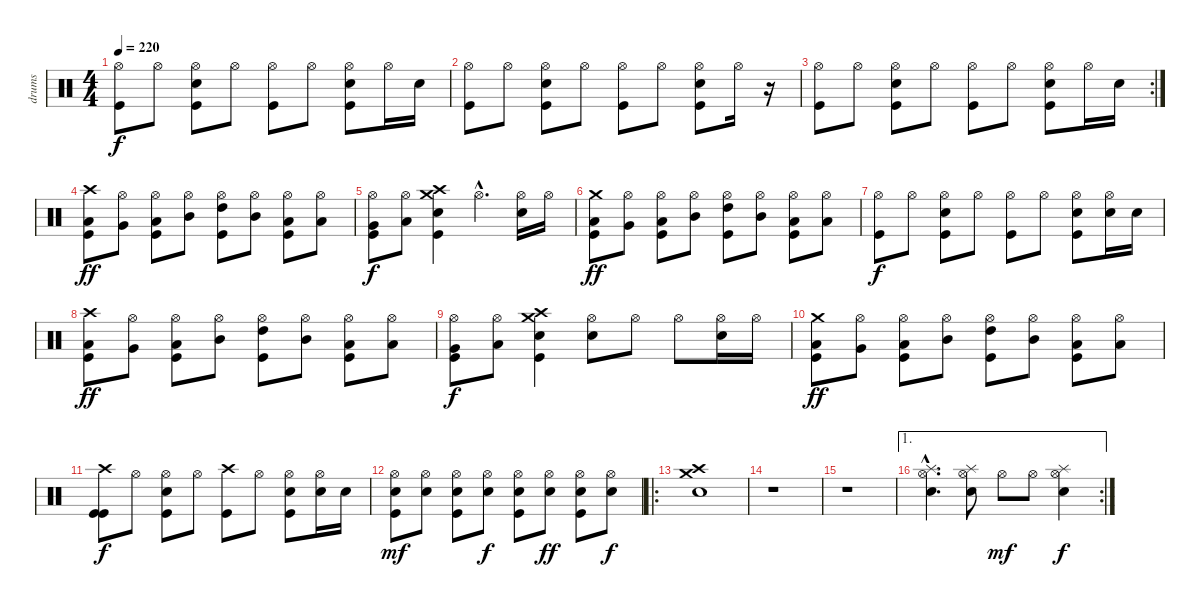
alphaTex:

\track ("drums" "drums") {instrument percussion}
\staff {score}
\articulation defaults
\ts (4 4)
\tempo 220
\clef neutral
\ks c
("Hi-Hat (open)" "Kick (hit)").8{dy f} "Hi-Hat (open)".8 ("Hi-Hat (open)" "Electric Snare (hit)" "Kick (hit)").8 "Hi-Hat (open)".8 ("Hi-Hat (open)" "Kick (hit)").8 "Hi-Hat (open)".8 ("Hi-Hat (open)" "Electric Snare (hit)" "Kick (hit)").8 "Hi-Hat (open)".16 "Electric Snare (hit)".16 |
("Hi-Hat (open)" "Kick (hit)").8 "Hi-Hat (open)".8 ("Hi-Hat (open)" "Electric Snare (hit)" "Kick (hit)").8 "Hi-Hat (open)".8 ("Hi-Hat (open)" "Kick (hit)").8 "Hi-Hat (open)".8 ("Hi-Hat (open)" "Electric Snare (hit)" "Kick (hit)").8 "Hi-Hat (open)".16 r.16 |
\rc 2
("Hi-Hat (open)" "Kick (hit)").8 "Hi-Hat (open)".8 ("Hi-Hat (open)" "Electric Snare (hit)" "Kick (hit)").8 "Hi-Hat (open)".8 ("Hi-Hat (open)" "Kick (hit)").8 "Hi-Hat (open)".8 ("Hi-Hat (open)" "Electric Snare (hit)" "Kick (hit)").8 "Hi-Hat (open)".16 "Electric Snare (hit)".16 |
("Crash high (hit)" "Low Floor Tom (hit)" "Kick (hit)").8{dy ff} ("Hi-Hat (open)" "Very Low Tom (hit)").8 ("Hi-Hat (open)" "Low Tom (hit)" "Kick (hit)").8 ("Hi-Hat (open)" "Mid Tom (hit)").8 ("Hi-Hat (open)" "High Tom (hit)" "Kick (hit)").8 ("Hi-Hat (open)" "Mid Tom (hit)").8 ("Hi-Hat (open)" "Low Tom (hit)" "Kick (hit)").8 ("Hi-Hat (open)" "Low Tom (hit)").8 |
("Hi-Hat (open)" "Very Low Tom (hit)" "Kick (hit)").8{dy f} ("Hi-Hat (open)" "Low Floor Tom (hit)").8 ("Crash medium (hit)" "Crash high (hit)" "Electric Snare (hit)" "Kick (hit)").4 "Hi-Hat (open)"{hac}.4{d} ("Electric Snare (hit)" "Hi-Hat (open)").16 "Hi-Hat (open)".16 |
("Crash medium (hit)" "Low Floor Tom (hit)" "Kick (hit)").8{dy ff} ("Hi-Hat (open)" "Very Low Tom (hit)").8 ("Hi-Hat (open)" "Low Tom (hit)" "Kick (hit)").8 ("Hi-Hat (open)" "Mid Tom (hit)").8 ("Hi-Hat (open)" "High Tom (hit)" "Kick (hit)").8 ("Hi-Hat (open)" "Mid Tom (hit)").8 ("Hi-Hat (open)" "Low Tom (hit)" "Kick (hit)").8 ("Hi-Hat (open)" "Low Tom (hit)").8 |
("Hi-Hat (open)" "Kick (hit)").8{dy f} "Hi-Hat (open)".8 ("Hi-Hat (open)" "Electric Snare (hit)" "Kick (hit)").8 "Hi-Hat (open)".8 ("Hi-Hat (open)" "Kick (hit)").8 "Hi-Hat (open)".8 ("Hi-Hat (open)" "Electric Snare (hit)" "Kick (hit)").8 ("Hi-Hat (open)" "Electric Snare (hit)").16 "Electric Snare (hit)".16 |
("Crash high (hit)" "Low Floor Tom (hit)" "Kick (hit)").8{dy ff} ("Hi-Hat (open)" "Very Low Tom (hit)").8 ("Hi-Hat (open)" "Low Tom (hit)" "Kick (hit)").8 ("Hi-Hat (open)" "Mid Tom (hit)").8 ("Hi-Hat (open)" "High Tom (hit)" "Kick (hit)").8 ("Hi-Hat (open)" "Mid Tom (hit)").8 ("Hi-Hat (open)" "Low Tom (hit)" "Kick (hit)").8 ("Hi-Hat (open)" "Low Tom (hit)").8 |
("Hi-Hat (open)" "Very Low Tom (hit)" "Kick (hit)").8{dy f} ("Hi-Hat (open)" "Low Floor Tom (hit)").8 ("Crash medium (hit)" "Crash high (hit)" "Electric Snare (hit)" "Kick (hit)").4 ("Hi-Hat (open)" "Electric Snare (hit)").8 "Hi-Hat (open)".8 "Hi-Hat (open)".8 ("Hi-Hat (open)" "Electric Snare (hit)").16 "Hi-Hat (open)".16 |
("Crash medium (hit)" "Low Floor Tom (hit)" "Kick (hit)").8{dy ff} ("Hi-Hat (open)" "Very Low Tom (hit)").8 ("Hi-Hat (open)" "Low Tom (hit)" "Kick (hit)").8 ("Hi-Hat (open)" "Mid Tom (hit)").8 ("Hi-Hat (open)" "High Tom (hit)" "Kick (hit)").8 ("Hi-Hat (open)" "Mid Tom (hit)").8 ("Hi-Hat (open)" "Low Tom (hit)" "Kick (hit)").8 ("Hi-Hat (open)" "Low Tom (hit)").8 |
("Crash high (hit)" "Kick (hit)" "Kick (hit)").8{dy f} "Hi-Hat (open)".8 ("Hi-Hat (open)" "Electric Snare (hit)" "Kick (hit)").8 "Hi-Hat (open)".8 ("Crash high (hit)" "Kick (hit)").8 "Hi-Hat (open)".8 ("Hi-Hat (open)" "Electric Snare (hit)" "Kick (hit)").8 ("Hi-Hat (open)" "Electric Snare (hit)").16 "Electric Snare (hit)".16 |
("Electric Snare (hit)" "Hi-Hat (open)" "Kick (hit)").8{dy mf} ("Electric Snare (hit)" "Hi-Hat (open)").8 ("Electric Snare (hit)" "Hi-Hat (open)" "Kick (hit)").8 ("Electric Snare (hit)" "Hi-Hat (open)").8{dy f} ("Electric Snare (hit)" "Hi-Hat (open)" "Kick (hit)").8 ("Electric Snare (hit)" "Hi-Hat (open)").8{dy ff} ("Electric Snare (hit)" "Hi-Hat (open)" "Kick (hit)").8 ("Electric Snare (hit)" "Hi-Hat (open)").8{dy f} |
\ro
("Crash medium (hit)" "Crash high (hit)" "Electric Snare (hit)").1 |
r.1 |
r.1 |
\ae 1
\rc 2
("Splash (hit)"{hac} "Hi-Hat (open)"{hac} "Snare (hit) 2"{hac}).4{d} ("Splash (hit)" "Hi-Hat (open)" "Snare (hit) 2").8 "Hi-Hat (open)".8{dy mf} "Hi-Hat (open)".8 ("Splash (hit)" "Hi-Hat (open)" "Snare (hit) 2").4{dy f}
